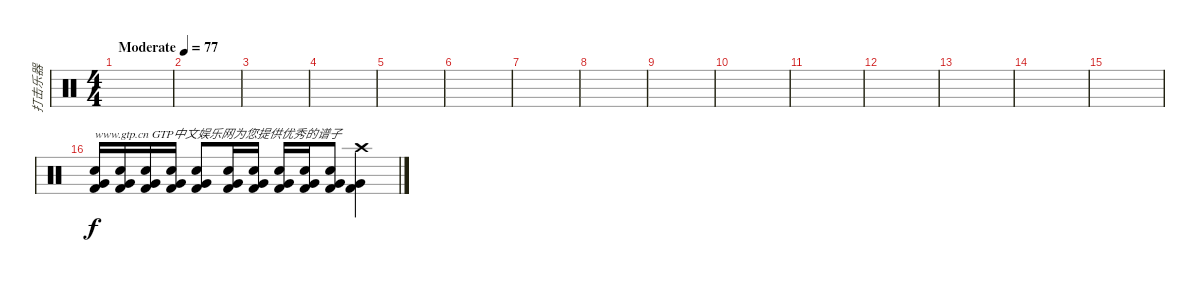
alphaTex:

\track ("打击乐器" "打击乐器") {instrument percussion}
\staff {score}
\articulation defaults
\ts (4 4)
\tempo (77 "Moderate")
\clef neutral
\ks c
|
|
|
|
|
|
|
|
|
|
|
|
|
|
|
("Electric Snare (hit)" "Kick (hit) 2" "Very Low Tom (hit)").16{txt "www.gtp.cn GTP中文娱乐网为您提供优秀的谱子"} ("Electric Snare (hit)" "Kick (hit) 2" "Very Low Tom (hit)").16 ("Electric Snare (hit)" "Kick (hit) 2" "Very Low Tom (hit)").16 ("Electric Snare (hit)" "Kick (hit) 2" "Very Low Tom (hit)").16 ("Electric Snare (hit)" "Kick (hit) 2" "Very Low Tom (hit)").8 ("Electric Snare (hit)" "Kick (hit) 2" "Very Low Tom (hit)").16 ("Electric Snare (hit)" "Kick (hit) 2" "Very Low Tom (hit)").16 ("Electric Snare (hit)" "Kick (hit) 2" "Very Low Tom (hit)").16 ("Electric Snare (hit)" "Kick (hit) 2" "Very Low Tom (hit)").16 ("Electric Snare (hit)" "Kick (hit) 2" "Very Low Tom (hit)").8 ("Crash high (hit)" "Kick (hit) 2" "Very Low Tom (hit)").4
